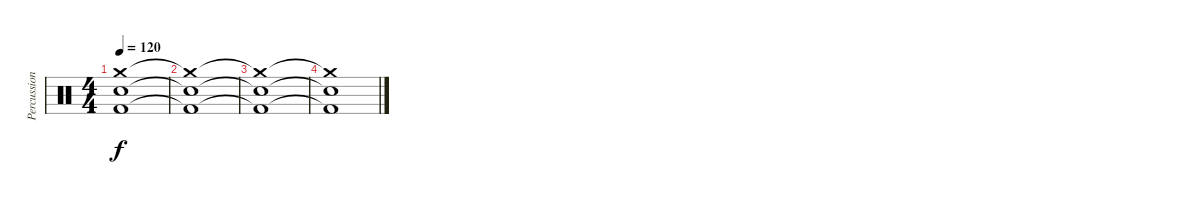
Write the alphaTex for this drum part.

\track ("Percussion" "Percussion") {instrument percussion}
\staff {score}
\articulation defaults
\ts (4 4)
\tempo 120
\clef neutral
\ks c
("Crash medium (hit)" "Snare (hit) 2" "Kick (hit) 2").1{dy f} |
("Crash medium (hit)"{t} "Snare (hit) 2"{t} "Kick (hit) 2"{t}).1 |
("Crash medium (hit)"{t} "Snare (hit) 2"{t} "Kick (hit) 2"{t}).1 |
("Crash medium (hit)"{t} "Snare (hit) 2"{t} "Kick (hit) 2"{t}).1
